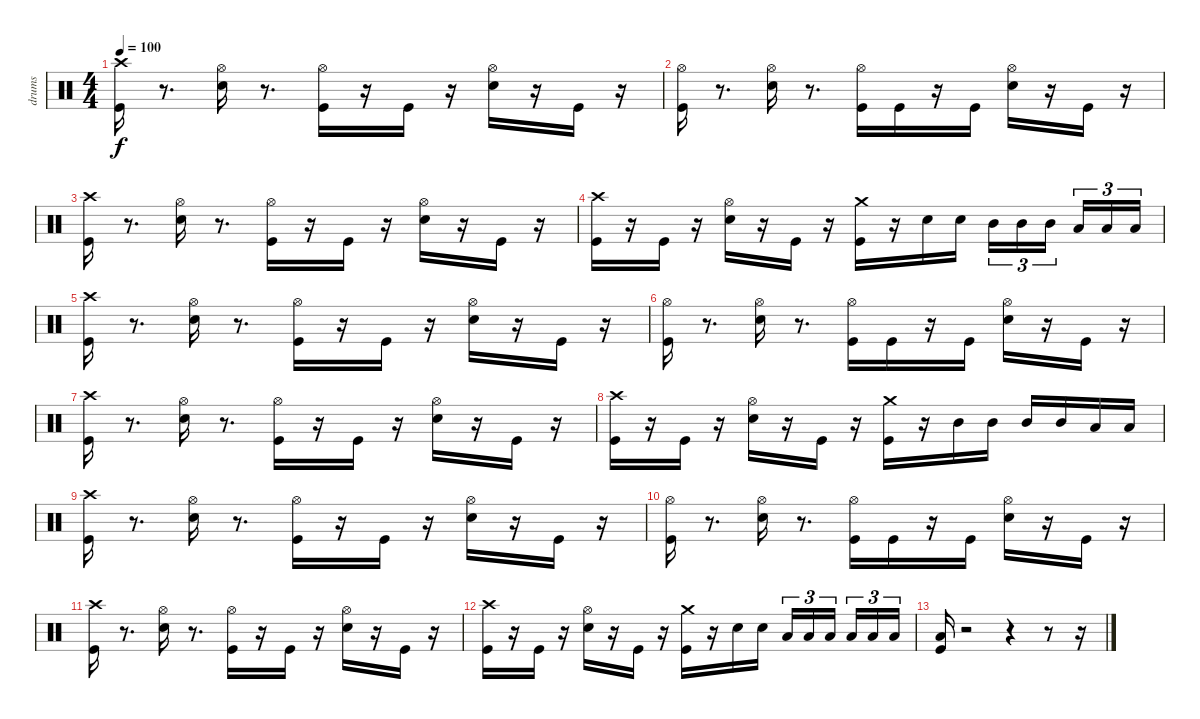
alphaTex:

\track ("drums" "drums") {instrument percussion}
\staff {score}
\articulation defaults
\ts (4 4)
\tempo 100
\clef neutral
\ks c
("Crash high (hit)" "Kick (hit)").16{dy f} r.8{d} ("Hi-Hat (open)" "Snare (hit) 2").16 r.8{d} ("Hi-Hat (open)" "Kick (hit)").16 r.16 "Kick (hit)".16 r.16 ("Hi-Hat (open)" "Snare (hit) 2").16 r.16 "Kick (hit)".16 r.16 |
("Hi-Hat (open)" "Kick (hit)").16 r.8{d} ("Hi-Hat (open)" "Snare (hit) 2").16 r.8{d} ("Hi-Hat (open)" "Kick (hit)").16 "Kick (hit)".16 r.16 "Kick (hit)".16 ("Hi-Hat (open)" "Snare (hit) 2").16 r.16 "Kick (hit)".16 r.16 |
("Crash high (hit)" "Kick (hit)").16 r.8{d} ("Hi-Hat (open)" "Snare (hit) 2").16 r.8{d} ("Hi-Hat (open)" "Kick (hit)").16 r.16 "Kick (hit)".16 r.16 ("Hi-Hat (open)" "Snare (hit) 2").16 r.16 "Kick (hit)".16 r.16 |
("Crash high (hit)" "Kick (hit)").16 r.16 "Kick (hit)".16 r.16 ("Hi-Hat (open)" "Snare (hit) 2").16 r.16 "Kick (hit)".16 r.16 ("Crash medium (hit)" "Kick (hit)").16 r.16 "Snare (hit) 2".16 "Snare (hit) 2".16 "Mid Tom (hit)".16{tu (3 2)} "Mid Tom (hit)".16{tu (3 2)} "Mid Tom (hit)".16{tu (3 2)} "Low Tom (hit)".16{tu (3 2)} "Low Tom (hit)".16{tu (3 2)} "Low Tom (hit)".16{tu (3 2)} |
("Crash high (hit)" "Kick (hit)").16 r.8{d} ("Hi-Hat (open)" "Snare (hit) 2").16 r.8{d} ("Hi-Hat (open)" "Kick (hit)").16 r.16 "Kick (hit)".16 r.16 ("Hi-Hat (open)" "Snare (hit) 2").16 r.16 "Kick (hit)".16 r.16 |
("Hi-Hat (open)" "Kick (hit)").16 r.8{d} ("Hi-Hat (open)" "Snare (hit) 2").16 r.8{d} ("Hi-Hat (open)" "Kick (hit)").16 "Kick (hit)".16 r.16 "Kick (hit)".16 ("Hi-Hat (open)" "Snare (hit) 2").16 r.16 "Kick (hit)".16 r.16 |
("Crash high (hit)" "Kick (hit)").16 r.8{d} ("Hi-Hat (open)" "Snare (hit) 2").16 r.8{d} ("Hi-Hat (open)" "Kick (hit)").16 r.16 "Kick (hit)".16 r.16 ("Hi-Hat (open)" "Snare (hit) 2").16 r.16 "Kick (hit)".16 r.16 |
("Crash high (hit)" "Kick (hit)").16 r.16 "Kick (hit)".16 r.16 ("Hi-Hat (open)" "Snare (hit) 2").16 r.16 "Kick (hit)".16 r.16 ("Crash medium (hit)" "Kick (hit)").16 r.16 "Mid Tom (hit)".16 "Mid Tom (hit)".16 "Mid Tom (hit)".16 "Mid Tom (hit)".16 "Low Tom (hit)".16 "Low Tom (hit)".16 |
("Crash high (hit)" "Kick (hit)").16 r.8{d} ("Hi-Hat (open)" "Snare (hit) 2").16 r.8{d} ("Hi-Hat (open)" "Kick (hit)").16 r.16 "Kick (hit)".16 r.16 ("Hi-Hat (open)" "Snare (hit) 2").16 r.16 "Kick (hit)".16 r.16 |
("Hi-Hat (open)" "Kick (hit)").16 r.8{d} ("Hi-Hat (open)" "Snare (hit) 2").16 r.8{d} ("Hi-Hat (open)" "Kick (hit)").16 "Kick (hit)".16 r.16 "Kick (hit)".16 ("Hi-Hat (open)" "Snare (hit) 2").16 r.16 "Kick (hit)".16 r.16 |
("Crash high (hit)" "Kick (hit)").16 r.8{d} ("Hi-Hat (open)" "Snare (hit) 2").16 r.8{d} ("Hi-Hat (open)" "Kick (hit)").16 r.16 "Kick (hit)".16 r.16 ("Hi-Hat (open)" "Snare (hit) 2").16 r.16 "Kick (hit)".16 r.16 |
("Crash high (hit)" "Kick (hit)").16 r.16 "Kick (hit)".16 r.16 ("Hi-Hat (open)" "Snare (hit) 2").16 r.16 "Kick (hit)".16 r.16 ("Crash medium (hit)" "Kick (hit)").16 r.16 "Snare (hit) 2".16 "Snare (hit) 2".16 "Low Tom (hit)".16{tu (3 2)} "Low Tom (hit)".16{tu (3 2)} "Low Tom (hit)".16{tu (3 2)} "Low Floor Tom (hit)".16{tu (3 2)} "Low Floor Tom (hit)".16{tu (3 2)} "Low Floor Tom (hit)".16{tu (3 2)} |
("Kick (hit)" "Low Floor Tom (hit)").16 r.2 r.4 r.8 r.16
